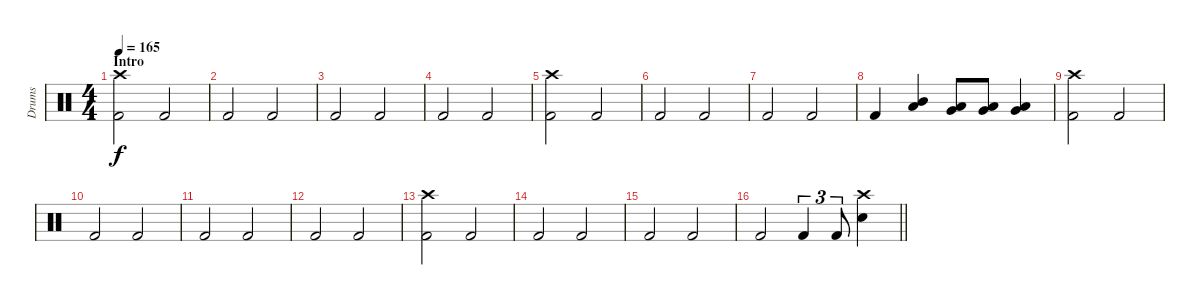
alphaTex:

\track ("Drums" "Drums") {instrument percussion}
\staff {score}
\articulation defaults
\ts (4 4)
\section ("" "Intro")
\tempo 165
\clef neutral
\ks c
("Kick (hit) 2" "Crash high (hit)").2{dy f} "Kick (hit) 2".2 |
"Kick (hit) 2".2 "Kick (hit) 2".2 |
"Kick (hit) 2".2 "Kick (hit) 2".2 |
"Kick (hit) 2".2 "Kick (hit) 2".2 |
("Kick (hit) 2" "Crash high (hit)").2 "Kick (hit) 2".2 |
"Kick (hit) 2".2 "Kick (hit) 2".2 |
"Kick (hit) 2".2 "Kick (hit) 2".2 |
"Kick (hit) 2".4 ("Low Tom (hit)" "Mid Tom (hit)").4 ("Very Low Tom (hit)" "Low Tom (hit)").8 ("Very Low Tom (hit)" "Low Tom (hit)").8 ("Low Floor Tom (hit)" "Very Low Tom (hit)").4 |
("Kick (hit) 2" "Crash high (hit)").2 "Kick (hit) 2".2 |
"Kick (hit) 2".2 "Kick (hit) 2".2 |
"Kick (hit) 2".2 "Kick (hit) 2".2 |
"Kick (hit) 2".2 "Kick (hit) 2".2 |
("Kick (hit) 2" "Crash high (hit)").2 "Kick (hit) 2".2 |
"Kick (hit) 2".2 "Kick (hit) 2".2 |
"Kick (hit) 2".2 "Kick (hit) 2".2 |
\barLineRight lightlight "Kick (hit) 2".2 "Kick (hit) 2".4{tu (3 2)} "Kick (hit) 2".8{tu (3 2)}
("Snare (hit) 2" "Crash high (hit)").4
